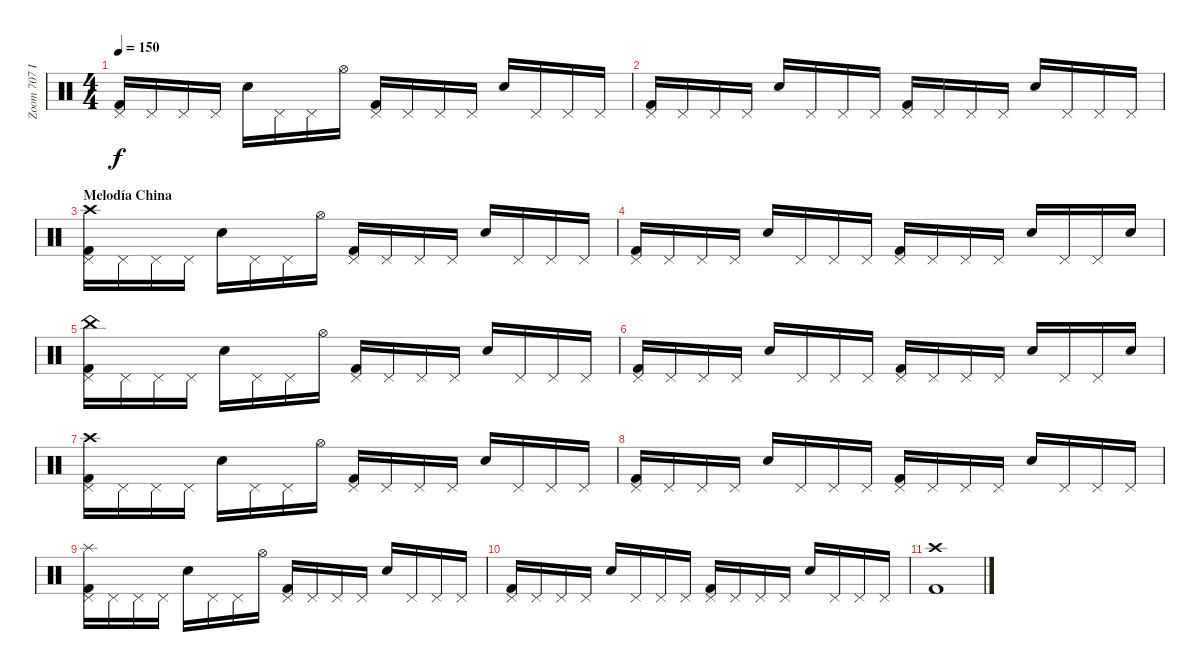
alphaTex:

\track ("Zoom 707 II" "Zoom 707 I") {instrument percussion}
\staff {score}
\articulation defaults
\ts (4 4)
\tempo 150
\clef neutral
\ks c
("Pedal Hi-Hat (hit)" "Kick (hit) 2").16{dy f} "Pedal Hi-Hat (hit)".16 "Pedal Hi-Hat (hit)".16 "Pedal Hi-Hat (hit)".16 "Snare (hit) 2".16 "Pedal Hi-Hat (hit)".16 "Pedal Hi-Hat (hit)".16 "Hi-Hat (open)".16 ("Pedal Hi-Hat (hit)" "Kick (hit) 2").16 "Pedal Hi-Hat (hit)".16 "Pedal Hi-Hat (hit)".16 "Pedal Hi-Hat (hit)".16 "Snare (hit) 2".16 "Pedal Hi-Hat (hit)".16 "Pedal Hi-Hat (hit)".16 "Pedal Hi-Hat (hit)".16 |
("Pedal Hi-Hat (hit)" "Kick (hit) 2").16 "Pedal Hi-Hat (hit)".16 "Pedal Hi-Hat (hit)".16 "Pedal Hi-Hat (hit)".16 "Snare (hit) 2".16 "Pedal Hi-Hat (hit)".16 "Pedal Hi-Hat (hit)".16 "Pedal Hi-Hat (hit)".16 ("Pedal Hi-Hat (hit)" "Kick (hit) 2").16 "Pedal Hi-Hat (hit)".16 "Pedal Hi-Hat (hit)".16 "Pedal Hi-Hat (hit)".16 "Snare (hit) 2".16 "Pedal Hi-Hat (hit)".16 "Pedal Hi-Hat (hit)".16 "Pedal Hi-Hat (hit)".16 |
\section ("" "Melodía China")
("Crash high (hit)" "Pedal Hi-Hat (hit)" "Kick (hit) 2").16 "Pedal Hi-Hat (hit)".16 "Pedal Hi-Hat (hit)".16 "Pedal Hi-Hat (hit)".16 "Snare (hit) 2".16 "Pedal Hi-Hat (hit)".16 "Pedal Hi-Hat (hit)".16 "Hi-Hat (open)".16 ("Pedal Hi-Hat (hit)" "Kick (hit) 2").16 "Pedal Hi-Hat (hit)".16 "Pedal Hi-Hat (hit)".16 "Pedal Hi-Hat (hit)".16 "Snare (hit) 2".16 "Pedal Hi-Hat (hit)".16 "Pedal Hi-Hat (hit)".16 "Pedal Hi-Hat (hit)".16 |
("Pedal Hi-Hat (hit)" "Kick (hit) 2").16 "Pedal Hi-Hat (hit)".16 "Pedal Hi-Hat (hit)".16 "Pedal Hi-Hat (hit)".16 "Snare (hit) 2".16 "Pedal Hi-Hat (hit)".16 "Pedal Hi-Hat (hit)".16 "Pedal Hi-Hat (hit)".16 ("Pedal Hi-Hat (hit)" "Kick (hit) 2").16 "Pedal Hi-Hat (hit)".16 "Pedal Hi-Hat (hit)".16 "Pedal Hi-Hat (hit)".16 "Snare (hit) 2".16 "Pedal Hi-Hat (hit)".16 "Pedal Hi-Hat (hit)".16 "Snare (hit) 2".16 |
("China (hit)" "Pedal Hi-Hat (hit)" "Kick (hit) 2").16 "Pedal Hi-Hat (hit)".16 "Pedal Hi-Hat (hit)".16 "Pedal Hi-Hat (hit)".16 "Snare (hit) 2".16 "Pedal Hi-Hat (hit)".16 "Pedal Hi-Hat (hit)".16 "Hi-Hat (open)".16 ("Pedal Hi-Hat (hit)" "Kick (hit) 2").16 "Pedal Hi-Hat (hit)".16 "Pedal Hi-Hat (hit)".16 "Pedal Hi-Hat (hit)".16 "Snare (hit) 2".16 "Pedal Hi-Hat (hit)".16 "Pedal Hi-Hat (hit)".16 "Pedal Hi-Hat (hit)".16 |
("Pedal Hi-Hat (hit)" "Kick (hit) 2").16 "Pedal Hi-Hat (hit)".16 "Pedal Hi-Hat (hit)".16 "Pedal Hi-Hat (hit)".16 "Snare (hit) 2".16 "Pedal Hi-Hat (hit)".16 "Pedal Hi-Hat (hit)".16 "Pedal Hi-Hat (hit)".16 ("Pedal Hi-Hat (hit)" "Kick (hit) 2").16 "Pedal Hi-Hat (hit)".16 "Pedal Hi-Hat (hit)".16 "Pedal Hi-Hat (hit)".16 "Snare (hit) 2".16 "Pedal Hi-Hat (hit)".16 "Pedal Hi-Hat (hit)".16 "Snare (hit) 2".16 |
("Crash high (hit)" "Pedal Hi-Hat (hit)" "Kick (hit) 2").16 "Pedal Hi-Hat (hit)".16 "Pedal Hi-Hat (hit)".16 "Pedal Hi-Hat (hit)".16 "Snare (hit) 2".16 "Pedal Hi-Hat (hit)".16 "Pedal Hi-Hat (hit)".16 "Hi-Hat (open)".16 ("Pedal Hi-Hat (hit)" "Kick (hit) 2").16 "Pedal Hi-Hat (hit)".16 "Pedal Hi-Hat (hit)".16 "Pedal Hi-Hat (hit)".16 "Snare (hit) 2".16 "Pedal Hi-Hat (hit)".16 "Pedal Hi-Hat (hit)".16 "Pedal Hi-Hat (hit)".16 |
("Pedal Hi-Hat (hit)" "Kick (hit) 2").16 "Pedal Hi-Hat (hit)".16 "Pedal Hi-Hat (hit)".16 "Pedal Hi-Hat (hit)".16 "Snare (hit) 2".16 "Pedal Hi-Hat (hit)".16 "Pedal Hi-Hat (hit)".16 "Pedal Hi-Hat (hit)".16 ("Pedal Hi-Hat (hit)" "Kick (hit) 2").16 "Pedal Hi-Hat (hit)".16 "Pedal Hi-Hat (hit)".16 "Pedal Hi-Hat (hit)".16 "Snare (hit) 2".16 "Pedal Hi-Hat (hit)".16 "Pedal Hi-Hat (hit)".16 "Pedal Hi-Hat (hit)".16 |
("Splash (hit)" "Pedal Hi-Hat (hit)" "Kick (hit) 2").16 "Pedal Hi-Hat (hit)".16 "Pedal Hi-Hat (hit)".16 "Pedal Hi-Hat (hit)".16 "Snare (hit) 2".16 "Pedal Hi-Hat (hit)".16 "Pedal Hi-Hat (hit)".16 "Hi-Hat (open)".16 ("Pedal Hi-Hat (hit)" "Kick (hit) 2").16 "Pedal Hi-Hat (hit)".16 "Pedal Hi-Hat (hit)".16 "Pedal Hi-Hat (hit)".16 "Snare (hit) 2".16 "Pedal Hi-Hat (hit)".16 "Pedal Hi-Hat (hit)".16 "Pedal Hi-Hat (hit)".16 |
("Pedal Hi-Hat (hit)" "Kick (hit) 2").16 "Pedal Hi-Hat (hit)".16 "Pedal Hi-Hat (hit)".16 "Pedal Hi-Hat (hit)".16 "Snare (hit) 2".16 "Pedal Hi-Hat (hit)".16 "Pedal Hi-Hat (hit)".16 "Pedal Hi-Hat (hit)".16 ("Pedal Hi-Hat (hit)" "Kick (hit) 2").16 "Pedal Hi-Hat (hit)".16 "Pedal Hi-Hat (hit)".16 "Pedal Hi-Hat (hit)".16 "Snare (hit) 2".16 "Pedal Hi-Hat (hit)".16 "Pedal Hi-Hat (hit)".16 "Pedal Hi-Hat (hit)".16 |
("Crash high (hit)" "Kick (hit) 2").1
